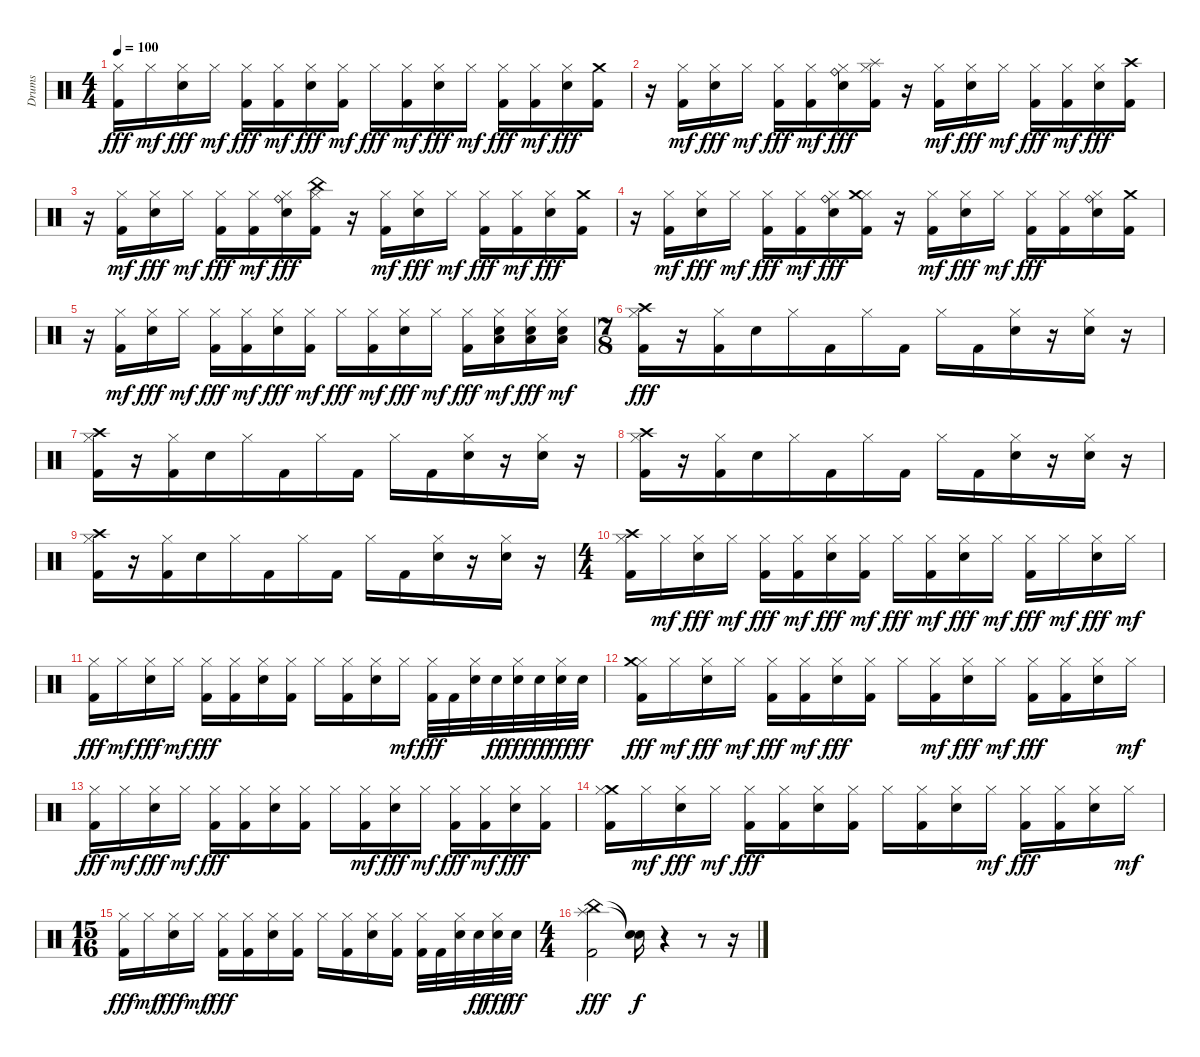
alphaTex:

\track ("Drums" "Drums") {instrument percussion}
\staff {score}
\articulation defaults
\ts (4 4)
\tempo 100
\clef neutral
\ks c
("Kick (hit) 2" "Hi-Hat (closed)").16{dy fff} "Hi-Hat (closed)".16{dy mf} ("Snare (hit) 2" "Hi-Hat (closed)").16{dy fff} "Hi-Hat (closed)".16{dy mf} ("Kick (hit) 2" "Hi-Hat (closed)").16{dy fff} ("Kick (hit) 2" "Hi-Hat (closed)").16{dy mf} ("Snare (hit) 2" "Hi-Hat (closed)").16{dy fff} ("Kick (hit) 2" "Hi-Hat (closed)").16{dy mf} "Hi-Hat (closed)".16{dy fff} ("Kick (hit) 2" "Hi-Hat (closed)").16{dy mf} ("Snare (hit) 2" "Hi-Hat (closed)").16{dy fff} "Hi-Hat (closed)".16{dy mf} ("Kick (hit) 2" "Hi-Hat (closed)").16{dy fff} ("Kick (hit) 2" "Hi-Hat (closed)").16{dy mf} ("Snare (hit) 2" "Hi-Hat (closed)").16{dy fff} ("Kick (hit) 2" "Crash medium (hit)").16 |
r.16 ("Kick (hit) 2" "Hi-Hat (closed)").16{dy mf} ("Snare (hit) 2" "Hi-Hat (closed)").16{dy fff} "Hi-Hat (closed)".16{dy mf} ("Kick (hit) 2" "Hi-Hat (closed)").16{dy fff} ("Kick (hit) 2" "Hi-Hat (closed)").16{dy mf} ("Snare (hit) 2" "Hi-Hat (closed)" "Ride (bell)").16{dy fff} ("Kick (hit) 2" "Hi-Hat (closed)" "Splash (hit)").16 r.16 ("Kick (hit) 2" "Hi-Hat (closed)").16{dy mf} ("Snare (hit) 2" "Hi-Hat (closed)").16{dy fff} "Hi-Hat (closed)".16{dy mf} ("Kick (hit) 2" "Hi-Hat (closed)").16{dy fff} ("Kick (hit) 2" "Hi-Hat (closed)").16{dy mf} ("Snare (hit) 2" "Hi-Hat (closed)").16{dy fff} ("Kick (hit) 2" "Crash high (hit)").16 |
r.16 ("Kick (hit) 2" "Hi-Hat (closed)").16{dy mf} ("Snare (hit) 2" "Hi-Hat (closed)").16{dy fff} "Hi-Hat (closed)".16{dy mf} ("Kick (hit) 2" "Hi-Hat (closed)").16{dy fff} ("Kick (hit) 2" "Hi-Hat (closed)").16{dy mf} ("Snare (hit) 2" "Hi-Hat (closed)" "Ride (bell)").16{dy fff} ("Kick (hit) 2" "Hi-Hat (closed)" "China (hit)").16 r.16 ("Kick (hit) 2" "Hi-Hat (closed)").16{dy mf} ("Snare (hit) 2" "Hi-Hat (closed)").16{dy fff} "Hi-Hat (closed)".16{dy mf} ("Kick (hit) 2" "Hi-Hat (closed)").16{dy fff} ("Kick (hit) 2" "Hi-Hat (closed)").16{dy mf} ("Snare (hit) 2" "Hi-Hat (closed)").16{dy fff} ("Kick (hit) 2" "Crash medium (hit)").16 |
r.16 ("Kick (hit) 2" "Hi-Hat (closed)").16{dy mf} ("Snare (hit) 2" "Hi-Hat (closed)").16{dy fff} "Hi-Hat (closed)".16{dy mf} ("Kick (hit) 2" "Hi-Hat (closed)").16{dy fff} ("Kick (hit) 2" "Hi-Hat (closed)").16{dy mf} ("Snare (hit) 2" "Hi-Hat (closed)" "Ride (bell)").16{dy fff} ("Kick (hit) 2" "Hi-Hat (closed)" "Crash medium (hit)").16 r.16 ("Kick (hit) 2" "Hi-Hat (closed)").16{dy mf} ("Snare (hit) 2" "Hi-Hat (closed)").16{dy fff} "Hi-Hat (closed)".16{dy mf} ("Kick (hit) 2" "Hi-Hat (closed)").16{dy fff} ("Hi-Hat (closed)" "Kick (hit) 2").16 ("Hi-Hat (closed)" "Snare (hit) 2" "Ride (bell)").16 ("Kick (hit) 2" "Crash medium (hit)").16 |
r.16 ("Kick (hit) 2" "Hi-Hat (closed)").16{dy mf} ("Hi-Hat (closed)" "Snare (hit) 2").16{dy fff} "Hi-Hat (closed)".16{dy mf} ("Kick (hit) 2" "Hi-Hat (closed)").16{dy fff} ("Kick (hit) 2" "Hi-Hat (closed)").16{dy mf} ("Snare (hit) 2" "Hi-Hat (closed)").16{dy fff} ("Kick (hit) 2" "Hi-Hat (closed)").16{dy mf} "Hi-Hat (closed)".16{dy fff} ("Kick (hit) 2" "Hi-Hat (closed)").16{dy mf} ("Snare (hit) 2" "Hi-Hat (closed)").16{dy fff} "Hi-Hat (closed)".16{dy mf} ("Kick (hit) 2" "Hi-Hat (closed)").16{dy fff} ("Snare (hit) 2" "Low Tom (hit)" "Hi-Hat (closed)").16{dy mf} ("Hi-Hat (closed)" "Low Tom (hit)" "Snare (hit) 2").16{dy fff} ("Snare (hit) 2" "Low Tom (hit)" "Hi-Hat (closed)").16{dy mf} |
\ts (7 8)
("Kick (hit) 2" "Hi-Hat (closed)" "Crash high (hit)").16{dy fff} r.16 ("Kick (hit) 2" "Hi-Hat (closed)").16 "Snare (hit) 2".16 "Hi-Hat (closed)".16 "Kick (hit) 2".16 "Hi-Hat (closed)".16 "Kick (hit) 2".16 "Hi-Hat (closed)".16 "Kick (hit) 2".16 ("Snare (hit) 2" "Hi-Hat (closed)").16 r.16 ("Snare (hit) 2" "Hi-Hat (closed)").16 r.16 |
("Kick (hit) 2" "Hi-Hat (closed)" "Crash high (hit)").16 r.16 ("Kick (hit) 2" "Hi-Hat (closed)").16 "Snare (hit) 2".16 "Hi-Hat (closed)".16 "Kick (hit) 2".16 "Hi-Hat (closed)".16 "Kick (hit) 2".16 "Hi-Hat (closed)".16 "Kick (hit) 2".16 ("Snare (hit) 2" "Hi-Hat (closed)").16 r.16 ("Snare (hit) 2" "Hi-Hat (closed)").16 r.16 |
("Kick (hit) 2" "Hi-Hat (closed)" "Crash high (hit)").16 r.16 ("Kick (hit) 2" "Hi-Hat (closed)").16 "Snare (hit) 2".16 "Hi-Hat (closed)".16 "Kick (hit) 2".16 "Hi-Hat (closed)".16 "Kick (hit) 2".16 "Hi-Hat (closed)".16 "Kick (hit) 2".16 ("Snare (hit) 2" "Hi-Hat (closed)").16 r.16 ("Snare (hit) 2" "Hi-Hat (closed)").16 r.16 |
("Kick (hit) 2" "Hi-Hat (closed)" "Crash high (hit)").16 r.16 ("Kick (hit) 2" "Hi-Hat (closed)").16 "Snare (hit) 2".16 "Hi-Hat (closed)".16 "Kick (hit) 2".16 "Hi-Hat (closed)".16 "Kick (hit) 2".16 "Hi-Hat (closed)".16 "Kick (hit) 2".16 ("Snare (hit) 2" "Hi-Hat (closed)").16 r.16 ("Snare (hit) 2" "Hi-Hat (closed)").16 r.16 |
\ts (4 4)
("Kick (hit) 2" "Hi-Hat (closed)" "Crash high (hit)").16 "Hi-Hat (closed)".16{dy mf} ("Snare (hit) 2" "Hi-Hat (closed)").16{dy fff} "Hi-Hat (closed)".16{dy mf} ("Kick (hit) 2" "Hi-Hat (closed)").16{dy fff} ("Kick (hit) 2" "Hi-Hat (closed)").16{dy mf} ("Snare (hit) 2" "Hi-Hat (closed)").16{dy fff} ("Kick (hit) 2" "Hi-Hat (closed)").16{dy mf} "Hi-Hat (closed)".16{dy fff} ("Kick (hit) 2" "Hi-Hat (closed)").16{dy mf} ("Snare (hit) 2" "Hi-Hat (closed)").16{dy fff} "Hi-Hat (closed)".16{dy mf} ("Hi-Hat (closed)" "Kick (hit) 2").16{dy fff} "Hi-Hat (closed)".16{dy mf} ("Snare (hit) 2" "Hi-Hat (closed)").16{dy fff} "Hi-Hat (closed)".16{dy mf} |
("Kick (hit) 2" "Hi-Hat (closed)").16{dy fff} "Hi-Hat (closed)".16{dy mf} ("Snare (hit) 2" "Hi-Hat (closed)").16{dy fff} "Hi-Hat (closed)".16{dy mf} ("Hi-Hat (closed)" "Kick (hit) 2").16{dy fff} ("Hi-Hat (closed)" "Kick (hit) 2").16 ("Snare (hit) 2" "Hi-Hat (closed)").16 ("Hi-Hat (closed)" "Kick (hit) 2").16 "Hi-Hat (closed)".16 ("Hi-Hat (closed)" "Kick (hit) 2").16 ("Snare (hit) 2" "Hi-Hat (closed)").16 "Hi-Hat (closed)".16{dy mf} ("Hi-Hat (closed)" "Kick (hit) 2").32{dy fff} "Kick (hit) 2".32 ("Hi-Hat (closed)" "Snare (hit) 2").32 "Snare (hit) 2".32{dy ff} ("Hi-Hat (closed)" "Snare (hit) 2").32{dy fff} "Snare (hit) 2".32{dy ff} ("Hi-Hat (closed)" "Snare (hit) 2").32{dy fff} "Snare (hit) 2".32{dy ff} |
("Kick (hit) 2" "Hi-Hat (closed)" "Crash medium (hit)").16{dy fff} "Hi-Hat (closed)".16{dy mf} ("Hi-Hat (closed)" "Snare (hit) 2").16{dy fff} "Hi-Hat (closed)".16{dy mf} ("Kick (hit) 2" "Hi-Hat (closed)").16{dy fff} ("Kick (hit) 2" "Hi-Hat (closed)").16{dy mf} ("Hi-Hat (closed)" "Snare (hit) 2").16{dy fff} ("Hi-Hat (closed)" "Kick (hit) 2").16 "Hi-Hat (closed)".16 ("Kick (hit) 2" "Hi-Hat (closed)").16{dy mf} ("Hi-Hat (closed)" "Snare (hit) 2").16{dy fff} "Hi-Hat (closed)".16{dy mf} ("Kick (hit) 2" "Hi-Hat (closed)").16{dy fff} ("Hi-Hat (closed)" "Kick (hit) 2").16 ("Hi-Hat (closed)" "Snare (hit) 2").16 "Hi-Hat (closed)".16{dy mf} |
("Kick (hit) 2" "Hi-Hat (closed)").16{dy fff} "Hi-Hat (closed)".16{dy mf} ("Hi-Hat (closed)" "Snare (hit) 2").16{dy fff} "Hi-Hat (closed)".16{dy mf} ("Kick (hit) 2" "Hi-Hat (closed)").16{dy fff} ("Hi-Hat (closed)" "Kick (hit) 2").16 ("Hi-Hat (closed)" "Snare (hit) 2").16 ("Hi-Hat (closed)" "Kick (hit) 2").16 "Hi-Hat (closed)".16 ("Kick (hit) 2" "Hi-Hat (closed)").16{dy mf} ("Hi-Hat (closed)" "Snare (hit) 2").16{dy fff} "Hi-Hat (closed)".16{dy mf} ("Hi-Hat (closed)" "Kick (hit) 2").16{dy fff} ("Kick (hit) 2" "Hi-Hat (closed)").16{dy mf} ("Snare (hit) 2" "Hi-Hat (closed)").16{dy fff} ("Hi-Hat (closed)" "Kick (hit) 2").16 |
("Crash medium (hit)" "Hi-Hat (closed)" "Kick (hit) 2").16 "Hi-Hat (closed)".16{dy mf} ("Snare (hit) 2" "Hi-Hat (closed)").16{dy fff} "Hi-Hat (closed)".16{dy mf} ("Hi-Hat (closed)" "Kick (hit) 2").16{dy fff} ("Hi-Hat (closed)" "Kick (hit) 2").16 ("Hi-Hat (closed)" "Snare (hit) 2").16 ("Hi-Hat (closed)" "Kick (hit) 2").16 "Hi-Hat (closed)".16 ("Hi-Hat (closed)" "Kick (hit) 2").16 ("Hi-Hat (closed)" "Snare (hit) 2").16 "Hi-Hat (closed)".16{dy mf} ("Hi-Hat (closed)" "Kick (hit) 2").16{dy fff} ("Hi-Hat (closed)" "Kick (hit) 2").16 ("Hi-Hat (closed)" "Snare (hit) 2").16 "Hi-Hat (closed)".16{dy mf} |
\ts (15 16)
("Kick (hit) 2" "Hi-Hat (closed)").16{dy fff} "Hi-Hat (closed)".16{dy mf} ("Hi-Hat (closed)" "Snare (hit) 2").16{dy fff} "Hi-Hat (closed)".16{dy mf} ("Hi-Hat (closed)" "Kick (hit) 2").16{dy fff} ("Hi-Hat (closed)" "Kick (hit) 2").16 ("Snare (hit) 2" "Hi-Hat (closed)").16 ("Hi-Hat (closed)" "Kick (hit) 2").16 "Hi-Hat (closed)".16 ("Hi-Hat (closed)" "Kick (hit) 2").16 ("Snare (hit) 2" "Hi-Hat (closed)").16 ("Hi-Hat (closed)" "Kick (hit) 2").16 ("Hi-Hat (closed)" "Kick (hit) 2").32 "Kick (hit) 2".32 ("Hi-Hat (closed)" "Snare (hit) 2").32 "Snare (hit) 2".32{dy ff} ("Hi-Hat (closed)" "Snare (hit) 2").32{dy fff} "Snare (hit) 2".32{dy ff} |
\ts (4 4)
("Splash (hit)" "China (hit)" "Kick (hit) 2").2{dy fff} ("Snare (hit)"{t} "Snare (hit)"{t}).16{dy f} r.4 r.8 r.16
